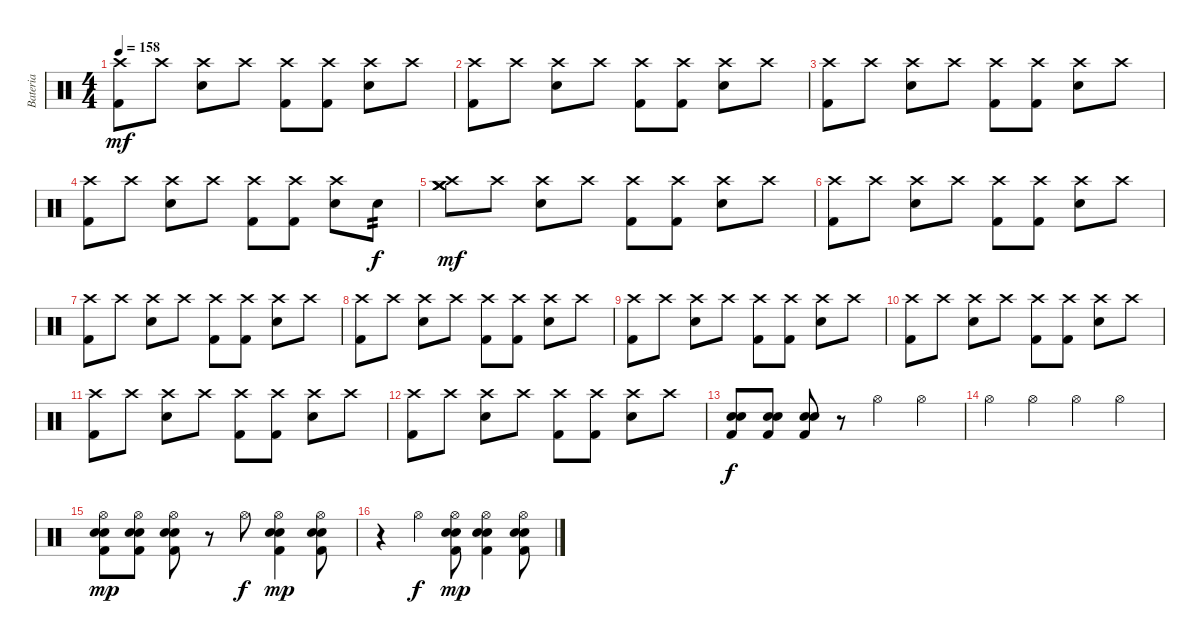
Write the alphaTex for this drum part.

\track ("Bateria" "Bateria") {instrument percussion}
\staff {score}
\articulation defaults
\ts (4 4)
\tempo 158
\clef neutral
\ks c
("Crash high (hit)" "Kick (hit) 2").8{dy mf} "Crash high (hit)".8 ("Crash high (hit)" "Electric Snare (hit)").8 "Crash high (hit)".8 ("Crash high (hit)" "Kick (hit) 2").8 ("Crash high (hit)" "Kick (hit) 2").8 ("Crash high (hit)" "Electric Snare (hit)").8 "Crash high (hit)".8 |
("Crash high (hit)" "Kick (hit) 2").8 "Crash high (hit)".8 ("Crash high (hit)" "Electric Snare (hit)").8 "Crash high (hit)".8 ("Crash high (hit)" "Kick (hit) 2").8 ("Crash high (hit)" "Kick (hit) 2").8 ("Crash high (hit)" "Electric Snare (hit)").8 "Crash high (hit)".8 |
("Crash high (hit)" "Kick (hit) 2").8 "Crash high (hit)".8 ("Crash high (hit)" "Electric Snare (hit)").8 "Crash high (hit)".8 ("Crash high (hit)" "Kick (hit) 2").8 ("Crash high (hit)" "Kick (hit) 2").8 ("Crash high (hit)" "Electric Snare (hit)").8 "Crash high (hit)".8 |
("Crash high (hit)" "Kick (hit) 2").8 "Crash high (hit)".8 ("Crash high (hit)" "Electric Snare (hit)").8 "Crash high (hit)".8 ("Crash high (hit)" "Kick (hit) 2").8 ("Crash high (hit)" "Kick (hit) 2").8 ("Crash high (hit)" "Electric Snare (hit)").8 "Electric Snare (hit)".8{tp 2 dy f} |
("Crash high (hit)" "Crash medium (hit)" "Crash medium (hit)" "Crash medium (hit)").8{dy mf} "Crash high (hit)".8 ("Crash high (hit)" "Electric Snare (hit)").8 "Crash high (hit)".8 ("Crash high (hit)" "Kick (hit) 2").8 ("Crash high (hit)" "Kick (hit) 2").8 ("Crash high (hit)" "Electric Snare (hit)").8 "Crash high (hit)".8 |
("Crash high (hit)" "Kick (hit) 2").8 "Crash high (hit)".8 ("Crash high (hit)" "Electric Snare (hit)").8 "Crash high (hit)".8 ("Crash high (hit)" "Kick (hit) 2").8 ("Crash high (hit)" "Kick (hit) 2").8 ("Crash high (hit)" "Electric Snare (hit)").8 "Crash high (hit)".8 |
("Crash high (hit)" "Kick (hit) 2").8 "Crash high (hit)".8 ("Crash high (hit)" "Electric Snare (hit)").8 "Crash high (hit)".8 ("Crash high (hit)" "Kick (hit) 2").8 ("Crash high (hit)" "Kick (hit) 2").8 ("Crash high (hit)" "Electric Snare (hit)").8 "Crash high (hit)".8 |
("Crash high (hit)" "Kick (hit) 2").8 "Crash high (hit)".8 ("Crash high (hit)" "Electric Snare (hit)").8 "Crash high (hit)".8 ("Crash high (hit)" "Kick (hit) 2").8 ("Crash high (hit)" "Kick (hit) 2").8 ("Crash high (hit)" "Electric Snare (hit)").8 "Crash high (hit)".8 |
("Crash high (hit)" "Kick (hit) 2").8 "Crash high (hit)".8 ("Crash high (hit)" "Electric Snare (hit)").8 "Crash high (hit)".8 ("Crash high (hit)" "Kick (hit) 2").8 ("Crash high (hit)" "Kick (hit) 2").8 ("Crash high (hit)" "Electric Snare (hit)").8 "Crash high (hit)".8 |
("Crash high (hit)" "Kick (hit) 2").8 "Crash high (hit)".8 ("Crash high (hit)" "Electric Snare (hit)").8 "Crash high (hit)".8 ("Crash high (hit)" "Kick (hit) 2").8 ("Crash high (hit)" "Kick (hit) 2").8 ("Crash high (hit)" "Electric Snare (hit)").8 "Crash high (hit)".8 |
("Crash high (hit)" "Kick (hit) 2").8 "Crash high (hit)".8 ("Crash high (hit)" "Electric Snare (hit)").8 "Crash high (hit)".8 ("Crash high (hit)" "Kick (hit) 2").8 ("Crash high (hit)" "Kick (hit) 2").8 ("Crash high (hit)" "Electric Snare (hit)").8 "Crash high (hit)".8 |
("Crash high (hit)" "Kick (hit) 2").8 "Crash high (hit)".8 ("Crash high (hit)" "Electric Snare (hit)").8 "Crash high (hit)".8 ("Crash high (hit)" "Kick (hit) 2").8 ("Crash high (hit)" "Kick (hit) 2").8 ("Crash high (hit)" "Electric Snare (hit)").8 "Crash high (hit)".8 |
("Electric Snare (hit)" "Kick (hit) 2" "Snare (hit) 2").8{dy f} ("Electric Snare (hit)" "Kick (hit) 2" "Snare (hit) 2").8 ("Electric Snare (hit)" "Kick (hit) 2" "Snare (hit) 2").8 r.8 "Hi-Hat (open)".4 "Hi-Hat (open)".4 |
"Hi-Hat (open)".4 "Hi-Hat (open)".4 "Hi-Hat (open)".4 "Hi-Hat (open)".4 |
("Electric Snare (hit)" "Kick (hit) 2" "Snare (hit) 2" "Hi-Hat (open)").8{dy mp} ("Electric Snare (hit)" "Kick (hit) 2" "Snare (hit) 2" "Hi-Hat (open)").8 ("Electric Snare (hit)" "Kick (hit) 2" "Snare (hit) 2" "Hi-Hat (open)").8 r.8 "Hi-Hat (open)".8{dy f} ("Electric Snare (hit)" "Kick (hit) 2" "Snare (hit) 2" "Hi-Hat (open)").4{dy mp} ("Electric Snare (hit)" "Kick (hit) 2" "Snare (hit) 2" "Hi-Hat (open)").8 |
r.4 "Hi-Hat (open)".4{dy f} ("Electric Snare (hit)" "Kick (hit) 2" "Snare (hit) 2" "Hi-Hat (open)").8{dy mp} ("Electric Snare (hit)" "Kick (hit) 2" "Snare (hit) 2" "Hi-Hat (open)").4 ("Electric Snare (hit)" "Kick (hit) 2" "Snare (hit) 2" "Hi-Hat (open)").8
